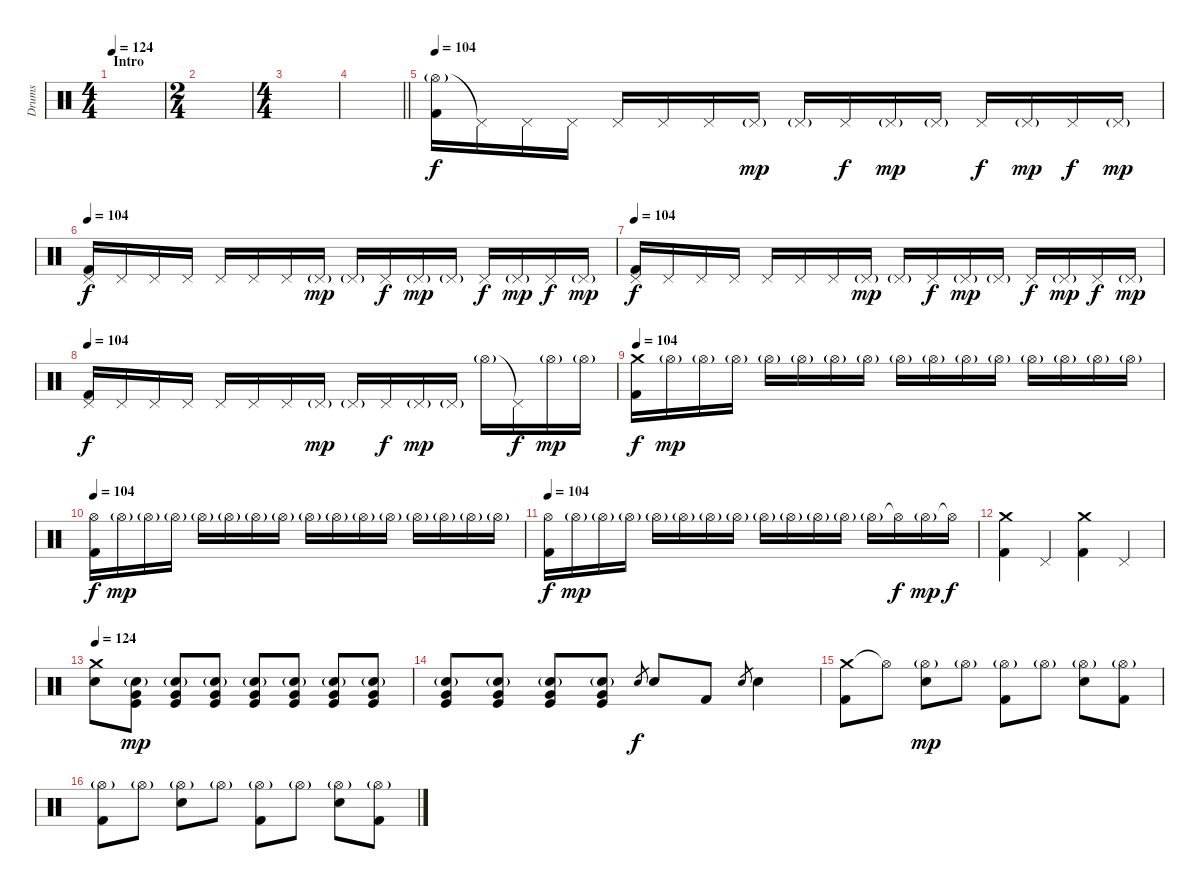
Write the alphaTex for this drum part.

\track ("Drums" "Drums") {instrument percussion}
\staff {score}
\articulation defaults
\ts (4 4)
\section ("" "Intro")
\tempo 124
\tempo 104
\tempo 124
\clef neutral
\ks c
|
\ts (2 4)
|
\ts (4 4)
|
\barLineRight lightlight
|
\section ("" "")
\tempo 104
("Hi-Hat (open)"{g} "Kick (hit) 2").16 "Pedal Hi-Hat (hit)"{t}.16{dy f} "Pedal Hi-Hat (hit)".16 "Pedal Hi-Hat (hit)".16 "Pedal Hi-Hat (hit)".16 "Pedal Hi-Hat (hit)".16 "Pedal Hi-Hat (hit)".16 "Pedal Hi-Hat (hit)"{g}.16{dy mp} "Pedal Hi-Hat (hit)"{g}.16 "Pedal Hi-Hat (hit)".16{dy f} "Pedal Hi-Hat (hit)"{g}.16{dy mp} "Pedal Hi-Hat (hit)"{g}.16 "Pedal Hi-Hat (hit)".16{dy f} "Pedal Hi-Hat (hit)"{g}.16{dy mp} "Pedal Hi-Hat (hit)".16{dy f} "Pedal Hi-Hat (hit)"{g}.16{dy mp} |
\tempo 104
("Pedal Hi-Hat (hit)" "Kick (hit) 2").16{dy f} "Pedal Hi-Hat (hit)".16 "Pedal Hi-Hat (hit)".16 "Pedal Hi-Hat (hit)".16 "Pedal Hi-Hat (hit)".16 "Pedal Hi-Hat (hit)".16 "Pedal Hi-Hat (hit)".16 "Pedal Hi-Hat (hit)"{g}.16{dy mp} "Pedal Hi-Hat (hit)"{g}.16 "Pedal Hi-Hat (hit)".16{dy f} "Pedal Hi-Hat (hit)"{g}.16{dy mp} "Pedal Hi-Hat (hit)"{g}.16 "Pedal Hi-Hat (hit)".16{dy f} "Pedal Hi-Hat (hit)"{g}.16{dy mp} "Pedal Hi-Hat (hit)".16{dy f} "Pedal Hi-Hat (hit)"{g}.16{dy mp} |
\tempo 104
("Pedal Hi-Hat (hit)" "Kick (hit) 2").16{dy f} "Pedal Hi-Hat (hit)".16 "Pedal Hi-Hat (hit)".16 "Pedal Hi-Hat (hit)".16 "Pedal Hi-Hat (hit)".16 "Pedal Hi-Hat (hit)".16 "Pedal Hi-Hat (hit)".16 "Pedal Hi-Hat (hit)"{g}.16{dy mp} "Pedal Hi-Hat (hit)"{g}.16 "Pedal Hi-Hat (hit)".16{dy f} "Pedal Hi-Hat (hit)"{g}.16{dy mp} "Pedal Hi-Hat (hit)"{g}.16 "Pedal Hi-Hat (hit)".16{dy f} "Pedal Hi-Hat (hit)"{g}.16{dy mp} "Pedal Hi-Hat (hit)".16{dy f} "Pedal Hi-Hat (hit)"{g}.16{dy mp} |
\tempo 104
("Pedal Hi-Hat (hit)" "Kick (hit) 2").16{dy f} "Pedal Hi-Hat (hit)".16 "Pedal Hi-Hat (hit)".16 "Pedal Hi-Hat (hit)".16 "Pedal Hi-Hat (hit)".16 "Pedal Hi-Hat (hit)".16 "Pedal Hi-Hat (hit)".16 "Pedal Hi-Hat (hit)"{g}.16{dy mp} "Pedal Hi-Hat (hit)"{g}.16 "Pedal Hi-Hat (hit)".16{dy f} "Pedal Hi-Hat (hit)"{g}.16{dy mp} "Pedal Hi-Hat (hit)"{g}.16 "Hi-Hat (open)"{g}.16{volume 12} "Pedal Hi-Hat (hit)"{t}.16{dy f} "Hi-Hat (open)"{g}.16{dy mp} "Hi-Hat (open)"{g}.16 |
\tempo 104
("Crash medium (hit)" "Kick (hit) 2").16{dy f} "Hi-Hat (open)"{g}.16{dy mp} "Hi-Hat (open)"{g}.16 "Hi-Hat (open)"{g}.16 "Hi-Hat (open)"{g}.16 "Hi-Hat (open)"{g}.16 "Hi-Hat (open)"{g}.16 "Hi-Hat (open)"{g}.16 "Hi-Hat (open)"{g}.16 "Hi-Hat (open)"{g}.16 "Hi-Hat (open)"{g}.16 "Hi-Hat (open)"{g}.16 "Hi-Hat (open)"{g}.16 "Hi-Hat (open)"{g}.16 "Hi-Hat (open)"{g}.16 "Hi-Hat (open)"{g}.16 |
\tempo 104
("Hi-Hat (open)" "Kick (hit) 2").16{dy f} "Hi-Hat (open)"{g}.16{dy mp} "Hi-Hat (open)"{g}.16 "Hi-Hat (open)"{g}.16 "Hi-Hat (open)"{g}.16 "Hi-Hat (open)"{g}.16 "Hi-Hat (open)"{g}.16 "Hi-Hat (open)"{g}.16 "Hi-Hat (open)"{g}.16 "Hi-Hat (open)"{g}.16 "Hi-Hat (open)"{g}.16 "Hi-Hat (open)"{g}.16 "Hi-Hat (open)"{g}.16 "Hi-Hat (open)"{g}.16 "Hi-Hat (open)"{g}.16 "Hi-Hat (open)"{g}.16 |
\tempo 104
("Hi-Hat (open)" "Kick (hit) 2").16{dy f} "Hi-Hat (open)"{g}.16{dy mp} "Hi-Hat (open)"{g}.16 "Hi-Hat (open)"{g}.16 "Hi-Hat (open)"{g}.16 "Hi-Hat (open)"{g}.16 "Hi-Hat (open)"{g}.16 "Hi-Hat (open)"{g}.16 "Hi-Hat (open)"{g}.16 "Hi-Hat (open)"{g}.16 "Hi-Hat (open)"{g}.16 "Hi-Hat (open)"{g}.16 "Hi-Hat (open)"{g}.16{volume 12} "Hi-Hat (open)"{t}.16{dy f} "Hi-Hat (open)"{g}.16{dy mp} "Hi-Hat (open)"{t}.16{dy f} |
("Crash medium (hit)" "Kick (hit) 2").4{volume 14} "Pedal Hi-Hat (hit)".4 ("Crash medium (hit)" "Kick (hit) 2").4{volume 14} "Pedal Hi-Hat (hit)".4 |
\tempo 124
("Snare (hit) 2" "Crash medium (hit)").8 ("Electric Snare (hit)"{g} "Kick (hit)" "Very Low Tom (hit)").8{dy mp} ("Electric Snare (hit)"{g} "Kick (hit)" "Very Low Tom (hit)").8 ("Electric Snare (hit)"{g} "Kick (hit)" "Very Low Tom (hit)").8 ("Electric Snare (hit)"{g} "Kick (hit)" "Very Low Tom (hit)").8 ("Electric Snare (hit)"{g} "Kick (hit)" "Very Low Tom (hit)").8 ("Electric Snare (hit)"{g} "Kick (hit)" "Very Low Tom (hit)").8 ("Electric Snare (hit)"{g} "Kick (hit)" "Very Low Tom (hit)").8 |
("Electric Snare (hit)"{g} "Kick (hit)" "Very Low Tom (hit)").8 ("Electric Snare (hit)"{g} "Kick (hit)" "Very Low Tom (hit)").8 ("Electric Snare (hit)"{g} "Kick (hit)" "Very Low Tom (hit)").8 ("Electric Snare (hit)"{g} "Kick (hit)" "Very Low Tom (hit)").8 "Snare (hit) 2".8{gr dy f} "Snare (hit) 2".8 "Kick (hit) 2".8 "Snare (hit) 2".8{gr} "Snare (hit) 2".4 |
("Crash medium (hit)" "Kick (hit) 2").8 "Hi-Hat (open)"{t}.8 ("Hi-Hat (open)"{g} "Snare (hit) 2").8{dy mp} "Hi-Hat (open)"{g}.8 ("Hi-Hat (open)"{g} "Kick (hit) 2").8 "Hi-Hat (open)"{g}.8 ("Hi-Hat (open)"{g} "Snare (hit) 2").8 ("Hi-Hat (open)"{g} "Kick (hit) 2").8 |
("Hi-Hat (open)"{g} "Kick (hit) 2").8 "Hi-Hat (open)"{g}.8 ("Hi-Hat (open)"{g} "Snare (hit) 2").8 "Hi-Hat (open)"{g}.8 ("Hi-Hat (open)"{g} "Kick (hit) 2").8 "Hi-Hat (open)"{g}.8 ("Hi-Hat (open)"{g} "Snare (hit) 2").8 ("Hi-Hat (open)"{g} "Kick (hit) 2").8
